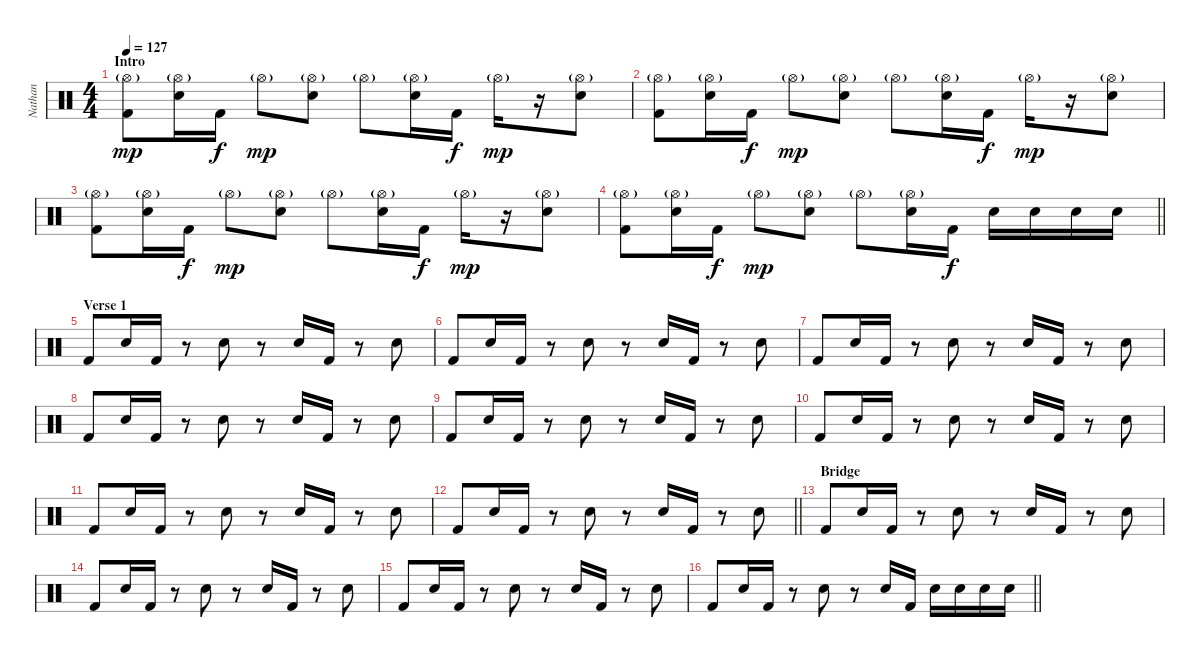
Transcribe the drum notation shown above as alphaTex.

\track ("Nathan" "Nathan") {instrument percussion}
\staff {score}
\articulation defaults
\ts (4 4)
\section ("" "Intro ")
\tempo 127
\clef neutral
\ks c
("Hi-Hat (open)"{g} "Kick (hit) 2").8{dy mp} ("Hi-Hat (open)"{g} "Electric Snare (hit)").16 "Kick (hit) 2".16{dy f} "Hi-Hat (open)"{g}.8{dy mp} ("Hi-Hat (open)"{g} "Electric Snare (hit)").8 "Hi-Hat (open)"{g}.8 ("Hi-Hat (open)"{g} "Electric Snare (hit)").16 "Kick (hit) 2".16{dy f} "Hi-Hat (open)"{g}.16{dy mp} r.16 ("Hi-Hat (open)"{g} "Electric Snare (hit)").8 |
("Hi-Hat (open)"{g} "Kick (hit) 2").8 ("Hi-Hat (open)"{g} "Electric Snare (hit)").16 "Kick (hit) 2".16{dy f} "Hi-Hat (open)"{g}.8{dy mp} ("Hi-Hat (open)"{g} "Electric Snare (hit)").8 "Hi-Hat (open)"{g}.8 ("Hi-Hat (open)"{g} "Electric Snare (hit)").16 "Kick (hit) 2".16{dy f} "Hi-Hat (open)"{g}.16{dy mp} r.16 ("Hi-Hat (open)"{g} "Electric Snare (hit)").8 |
("Hi-Hat (open)"{g} "Kick (hit) 2").8 ("Hi-Hat (open)"{g} "Electric Snare (hit)").16 "Kick (hit) 2".16{dy f} "Hi-Hat (open)"{g}.8{dy mp} ("Hi-Hat (open)"{g} "Electric Snare (hit)").8 "Hi-Hat (open)"{g}.8 ("Hi-Hat (open)"{g} "Electric Snare (hit)").16 "Kick (hit) 2".16{dy f} "Hi-Hat (open)"{g}.16{dy mp} r.16 ("Hi-Hat (open)"{g} "Electric Snare (hit)").8 |
\barLineRight lightlight
("Hi-Hat (open)"{g} "Kick (hit) 2").8 ("Hi-Hat (open)"{g} "Electric Snare (hit)").16 "Kick (hit) 2".16{dy f} "Hi-Hat (open)"{g}.8{dy mp} ("Hi-Hat (open)"{g} "Electric Snare (hit)").8 "Hi-Hat (open)"{g}.8 ("Hi-Hat (open)"{g} "Electric Snare (hit)").16 "Kick (hit) 2".16{dy f} "Electric Snare (hit)".16 "Electric Snare (hit)".16 "Electric Snare (hit)".16 "Electric Snare (hit)".16 |
\section ("" "Verse 1")
"Kick (hit) 2".8 "Electric Snare (hit)".16 "Kick (hit) 2".16 r.8 "Electric Snare (hit)".8 r.8 "Electric Snare (hit)".16 "Kick (hit) 2".16 r.8 "Electric Snare (hit)".8 |
"Kick (hit) 2".8 "Electric Snare (hit)".16 "Kick (hit) 2".16 r.8 "Electric Snare (hit)".8 r.8 "Electric Snare (hit)".16 "Kick (hit) 2".16 r.8 "Electric Snare (hit)".8 |
"Kick (hit) 2".8 "Electric Snare (hit)".16 "Kick (hit) 2".16 r.8 "Electric Snare (hit)".8 r.8 "Electric Snare (hit)".16 "Kick (hit) 2".16 r.8 "Electric Snare (hit)".8 |
"Kick (hit) 2".8 "Electric Snare (hit)".16 "Kick (hit) 2".16 r.8 "Electric Snare (hit)".8 r.8 "Electric Snare (hit)".16 "Kick (hit) 2".16 r.8 "Electric Snare (hit)".8 |
"Kick (hit) 2".8 "Electric Snare (hit)".16 "Kick (hit) 2".16 r.8 "Electric Snare (hit)".8 r.8 "Electric Snare (hit)".16 "Kick (hit) 2".16 r.8 "Electric Snare (hit)".8 |
"Kick (hit) 2".8 "Electric Snare (hit)".16 "Kick (hit) 2".16 r.8 "Electric Snare (hit)".8 r.8 "Electric Snare (hit)".16 "Kick (hit) 2".16 r.8 "Electric Snare (hit)".8 |
"Kick (hit) 2".8 "Electric Snare (hit)".16 "Kick (hit) 2".16 r.8 "Electric Snare (hit)".8 r.8 "Electric Snare (hit)".16 "Kick (hit) 2".16 r.8 "Electric Snare (hit)".8 |
\barLineRight lightlight "Kick (hit) 2".8 "Electric Snare (hit)".16 "Kick (hit) 2".16
r.8 "Electric Snare (hit)".8 r.8 "Electric Snare (hit)".16 "Kick (hit) 2".16 r.8 "Electric Snare (hit)".8 |
\section ("" "Bridge")
"Kick (hit) 2".8 "Electric Snare (hit)".16 "Kick (hit) 2".16 r.8 "Electric Snare (hit)".8 r.8 "Electric Snare (hit)".16 "Kick (hit) 2".16 r.8 "Electric Snare (hit)".8 |
"Kick (hit) 2".8 "Electric Snare (hit)".16 "Kick (hit) 2".16 r.8 "Electric Snare (hit)".8 r.8 "Electric Snare (hit)".16 "Kick (hit) 2".16 r.8 "Electric Snare (hit)".8 |
"Kick (hit) 2".8 "Electric Snare (hit)".16 "Kick (hit) 2".16 r.8 "Electric Snare (hit)".8 r.8 "Electric Snare (hit)".16 "Kick (hit) 2".16 r.8 "Electric Snare (hit)".8 |
\barLineRight lightlight "Kick (hit) 2".8 "Electric Snare (hit)".16 "Kick (hit) 2".16
r.8 "Electric Snare (hit)".8 r.8 "Electric Snare (hit)".16 "Kick (hit) 2".16 "Electric Snare (hit)".16 "Electric Snare (hit)".16 "Electric Snare (hit)".16 "Electric Snare (hit)".16
